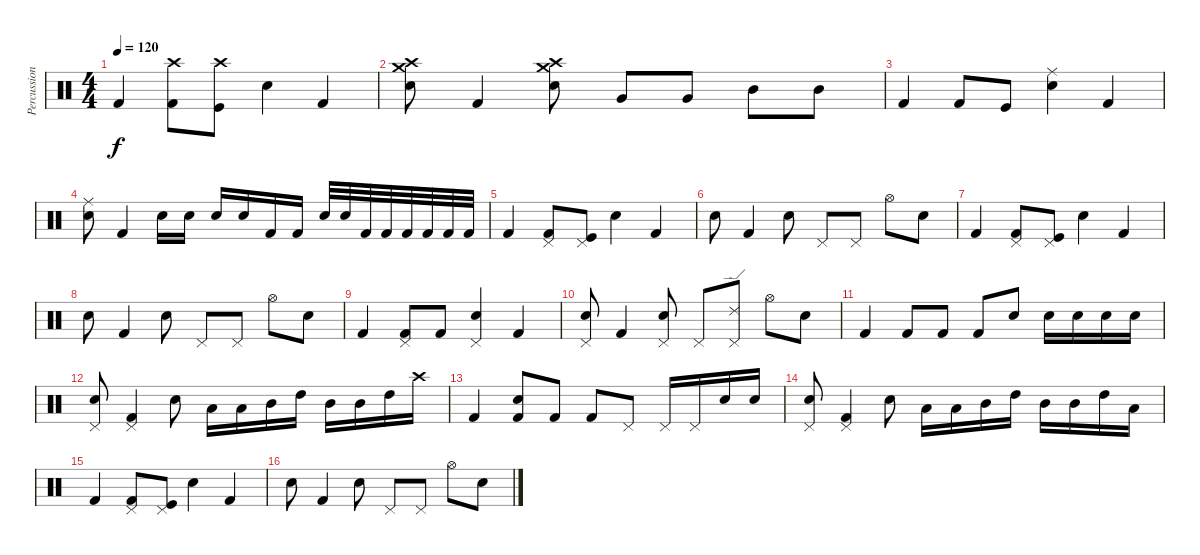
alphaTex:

\track ("Percussion" "Percussion") {instrument percussion}
\staff {score}
\articulation defaults
\ts (4 4)
\tempo 120
\clef neutral
\ks c "Kick (hit) 2".4{dy f}
("Kick (hit) 2" "Crash high (hit)").8 ("Kick (hit)" "Crash high (hit)").8 "Snare (hit) 2".4 "Kick (hit) 2".4 |
("Crash high (hit)" "Crash medium (hit)" "Snare (hit) 2").8 "Kick (hit) 2".4 ("Crash high (hit)" "Crash medium (hit)" "Snare (hit) 2").8 "Very Low Tom (hit)".8 "Very Low Tom (hit)".8 "Mid Tom (hit)".8 "Mid Tom (hit)".8 |
"Kick (hit) 2".4 "Kick (hit) 2".8 "Kick (hit)".8 ("Ride (middle)" "Snare (hit) 2").4 "Kick (hit) 2".4 |
("Ride (middle)" "Snare (hit) 2").8 "Kick (hit) 2".4 "Snare (hit) 2".16 "Snare (hit) 2".16 "Snare (hit) 2".16 "Snare (hit) 2".16 "Kick (hit) 2".16 "Kick (hit) 2".16 "Snare (hit) 2".32 "Snare (hit) 2".32 "Kick (hit) 2".32 "Kick (hit) 2".32 "Kick (hit) 2".32 "Kick (hit) 2".32 "Kick (hit) 2".32 "Kick (hit) 2".32 |
"Kick (hit) 2".4 ("Kick (hit) 2" "Pedal Hi-Hat (hit)").8 ("Kick (hit)" "Pedal Hi-Hat (hit)").8 "Snare (hit) 2".4 "Kick (hit) 2".4 |
"Snare (hit) 2".8 "Kick (hit) 2".4 "Snare (hit) 2".8 "Pedal Hi-Hat (hit)".8 "Pedal Hi-Hat (hit)".8 "Hi-Hat (open)".8 "Snare (hit) 2".8 |
"Kick (hit) 2".4 ("Kick (hit) 2" "Pedal Hi-Hat (hit)").8 ("Kick (hit)" "Pedal Hi-Hat (hit)").8 "Snare (hit) 2".4 "Kick (hit) 2".4 |
"Snare (hit) 2".8 "Kick (hit) 2".4 "Snare (hit) 2".8 "Pedal Hi-Hat (hit)".8 "Pedal Hi-Hat (hit)".8 "Hi-Hat (open)".8 "Snare (hit) 2".8 |
"Kick (hit) 2".4 ("Kick (hit) 2" "Pedal Hi-Hat (hit)").8 "Kick (hit) 2".8 ("Pedal Hi-Hat (hit)" "Snare (hit) 2").4 "Kick (hit) 2".4 |
("Pedal Hi-Hat (hit)" "Snare (hit) 2").8 "Kick (hit) 2".4 ("Pedal Hi-Hat (hit)" "Snare (hit) 2").8 "Pedal Hi-Hat (hit)".8 ("Ride (edge) 2" "Pedal Hi-Hat (hit)").8 "Hi-Hat (open)".8 "Snare (hit) 2".8 |
"Kick (hit) 2".4 "Kick (hit) 2".8 "Kick (hit) 2".8 "Kick (hit) 2".8 "Snare (hit) 2".8 "Snare (hit) 2".16 "Snare (hit) 2".16 "Snare (hit) 2".16 "Snare (hit) 2".16 |
("Pedal Hi-Hat (hit)" "Snare (hit) 2").8 ("Pedal Hi-Hat (hit)" "Kick (hit) 2").4 "Snare (hit) 2".8 "Low Tom (hit)".16 "Low Tom (hit)".16 "Mid Tom (hit)".16 "High Tom (hit)".16 "Mid Tom (hit)".16 "Mid Tom (hit)".16 "High Tom (hit)".16 "Crash high (hit)".16 |
"Kick (hit) 2".4 ("Kick (hit) 2" "Snare (hit) 2").8 "Kick (hit) 2".8 "Kick (hit) 2".8 "Pedal Hi-Hat (hit)".8 "Pedal Hi-Hat (hit)".16 "Pedal Hi-Hat (hit)".16 "Snare (hit) 2".16 "Snare (hit) 2".16 |
("Pedal Hi-Hat (hit)" "Snare (hit) 2").8 ("Pedal Hi-Hat (hit)" "Kick (hit) 2").4 "Snare (hit) 2".8 "Low Tom (hit)".16 "Low Tom (hit)".16 "Mid Tom (hit)".16 "High Tom (hit)".16 "Mid Tom (hit)".16 "Mid Tom (hit)".16 "High Tom (hit)".16 "Low Tom (hit)".16 |
"Kick (hit) 2".4 ("Kick (hit) 2" "Pedal Hi-Hat (hit)").8 ("Kick (hit)" "Pedal Hi-Hat (hit)").8 "Snare (hit) 2".4 "Kick (hit) 2".4 |
"Snare (hit) 2".8 "Kick (hit) 2".4 "Snare (hit) 2".8 "Pedal Hi-Hat (hit)".8 "Pedal Hi-Hat (hit)".8 "Hi-Hat (open)".8 "Snare (hit) 2".8
